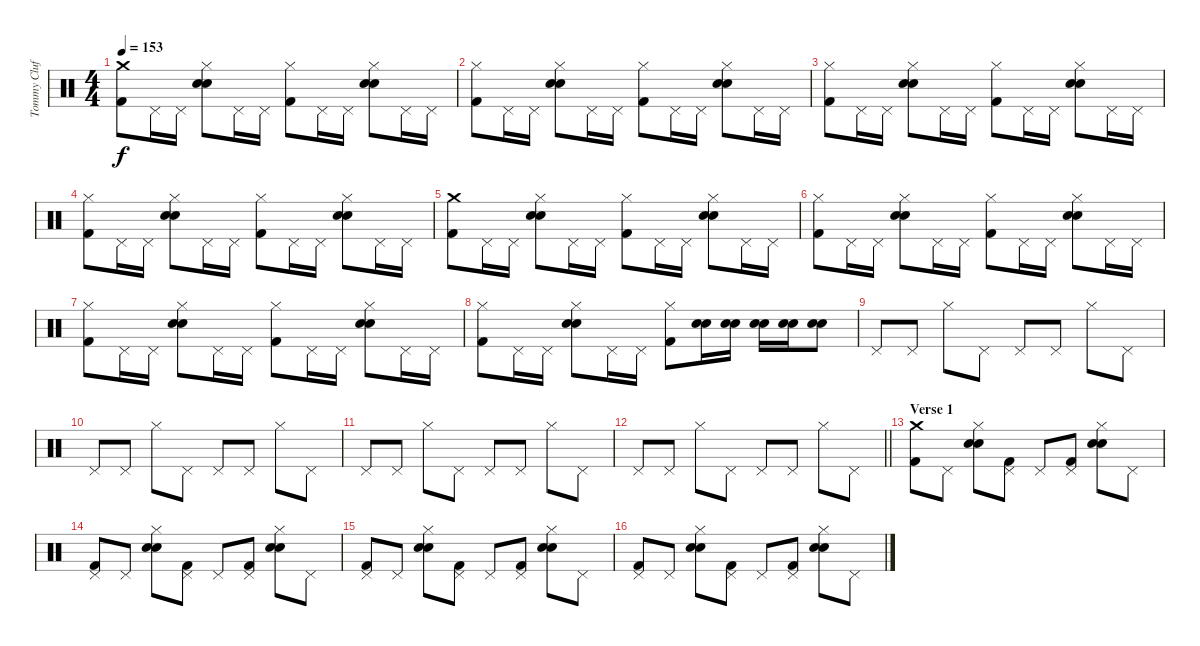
\track ("Tommy Clufetos" "Tommy Cluf") {instrument percussion}
\staff {score}
\articulation defaults
\ts (4 4)
\tempo 153
\clef neutral
\ks c
("Crash medium (hit)" "Kick (hit) 2").8{dy f} "Pedal Hi-Hat (hit)".16 "Pedal Hi-Hat (hit)".16 ("Hi-Hat (closed)" "Electric Snare (hit)" "Snare (hit) 2").8 "Pedal Hi-Hat (hit)".16 "Pedal Hi-Hat (hit)".16 ("Hi-Hat (closed)" "Kick (hit) 2").8 "Pedal Hi-Hat (hit)".16 "Pedal Hi-Hat (hit)".16 ("Hi-Hat (closed)" "Electric Snare (hit)" "Snare (hit) 2").8 "Pedal Hi-Hat (hit)".16 "Pedal Hi-Hat (hit)".16 |
("Hi-Hat (closed)" "Kick (hit) 2").8 "Pedal Hi-Hat (hit)".16 "Pedal Hi-Hat (hit)".16 ("Hi-Hat (closed)" "Electric Snare (hit)" "Snare (hit) 2").8 "Pedal Hi-Hat (hit)".16 "Pedal Hi-Hat (hit)".16 ("Hi-Hat (closed)" "Kick (hit) 2").8 "Pedal Hi-Hat (hit)".16 "Pedal Hi-Hat (hit)".16 ("Hi-Hat (closed)" "Electric Snare (hit)" "Snare (hit) 2").8 "Pedal Hi-Hat (hit)".16 "Pedal Hi-Hat (hit)".16 |
("Hi-Hat (closed)" "Kick (hit) 2").8 "Pedal Hi-Hat (hit)".16 "Pedal Hi-Hat (hit)".16 ("Hi-Hat (closed)" "Electric Snare (hit)" "Snare (hit) 2").8 "Pedal Hi-Hat (hit)".16 "Pedal Hi-Hat (hit)".16 ("Hi-Hat (closed)" "Kick (hit) 2").8 "Pedal Hi-Hat (hit)".16 "Pedal Hi-Hat (hit)".16 ("Hi-Hat (closed)" "Electric Snare (hit)" "Snare (hit) 2").8 "Pedal Hi-Hat (hit)".16 "Pedal Hi-Hat (hit)".16 |
("Hi-Hat (closed)" "Kick (hit) 2").8 "Pedal Hi-Hat (hit)".16 "Pedal Hi-Hat (hit)".16 ("Hi-Hat (closed)" "Electric Snare (hit)" "Snare (hit) 2").8 "Pedal Hi-Hat (hit)".16 "Pedal Hi-Hat (hit)".16 ("Hi-Hat (closed)" "Kick (hit) 2").8 "Pedal Hi-Hat (hit)".16 "Pedal Hi-Hat (hit)".16 ("Hi-Hat (closed)" "Electric Snare (hit)" "Snare (hit) 2").8 "Pedal Hi-Hat (hit)".16 "Pedal Hi-Hat (hit)".16 |
("Crash medium (hit)" "Kick (hit) 2").8 "Pedal Hi-Hat (hit)".16 "Pedal Hi-Hat (hit)".16 ("Hi-Hat (closed)" "Electric Snare (hit)" "Snare (hit) 2").8 "Pedal Hi-Hat (hit)".16 "Pedal Hi-Hat (hit)".16 ("Hi-Hat (closed)" "Kick (hit) 2").8 "Pedal Hi-Hat (hit)".16 "Pedal Hi-Hat (hit)".16 ("Hi-Hat (closed)" "Electric Snare (hit)" "Snare (hit) 2").8 "Pedal Hi-Hat (hit)".16 "Pedal Hi-Hat (hit)".16 |
("Hi-Hat (closed)" "Kick (hit) 2").8 "Pedal Hi-Hat (hit)".16 "Pedal Hi-Hat (hit)".16 ("Hi-Hat (closed)" "Electric Snare (hit)" "Snare (hit) 2").8 "Pedal Hi-Hat (hit)".16 "Pedal Hi-Hat (hit)".16 ("Hi-Hat (closed)" "Kick (hit) 2").8 "Pedal Hi-Hat (hit)".16 "Pedal Hi-Hat (hit)".16 ("Hi-Hat (closed)" "Electric Snare (hit)" "Snare (hit) 2").8 "Pedal Hi-Hat (hit)".16 "Pedal Hi-Hat (hit)".16 |
("Hi-Hat (closed)" "Kick (hit) 2").8 "Pedal Hi-Hat (hit)".16 "Pedal Hi-Hat (hit)".16 ("Hi-Hat (closed)" "Electric Snare (hit)" "Snare (hit) 2").8 "Pedal Hi-Hat (hit)".16 "Pedal Hi-Hat (hit)".16 ("Hi-Hat (closed)" "Kick (hit) 2").8 "Pedal Hi-Hat (hit)".16 "Pedal Hi-Hat (hit)".16 ("Hi-Hat (closed)" "Electric Snare (hit)" "Snare (hit) 2").8 "Pedal Hi-Hat (hit)".16 "Pedal Hi-Hat (hit)".16 |
("Hi-Hat (closed)" "Kick (hit) 2").8 "Pedal Hi-Hat (hit)".16 "Pedal Hi-Hat (hit)".16 ("Hi-Hat (closed)" "Electric Snare (hit)" "Snare (hit) 2").8 "Pedal Hi-Hat (hit)".16 "Pedal Hi-Hat (hit)".16 ("Hi-Hat (closed)" "Kick (hit) 2").8 ("Electric Snare (hit)" "Snare (hit) 2").16 ("Electric Snare (hit)" "Snare (hit) 2").16 ("Electric Snare (hit)" "Snare (hit) 2").16 ("Electric Snare (hit)" "Snare (hit) 2").16 ("Electric Snare (hit)" "Snare (hit) 2").8 |
"Pedal Hi-Hat (hit)".8 "Pedal Hi-Hat (hit)".8 "Hi-Hat (closed)".8 "Pedal Hi-Hat (hit)".8 "Pedal Hi-Hat (hit)".8 "Pedal Hi-Hat (hit)".8 "Hi-Hat (closed)".8 "Pedal Hi-Hat (hit)".8 |
"Pedal Hi-Hat (hit)".8 "Pedal Hi-Hat (hit)".8 "Hi-Hat (closed)".8 "Pedal Hi-Hat (hit)".8 "Pedal Hi-Hat (hit)".8 "Pedal Hi-Hat (hit)".8 "Hi-Hat (closed)".8 "Pedal Hi-Hat (hit)".8 |
"Pedal Hi-Hat (hit)".8 "Pedal Hi-Hat (hit)".8 "Hi-Hat (closed)".8 "Pedal Hi-Hat (hit)".8 "Pedal Hi-Hat (hit)".8 "Pedal Hi-Hat (hit)".8 "Hi-Hat (closed)".8 "Pedal Hi-Hat (hit)".8 |
\barLineRight lightlight "Pedal Hi-Hat (hit)".8 "Pedal Hi-Hat (hit)".8 "Hi-Hat (closed)".8 "Pedal Hi-Hat (hit)".8 "Pedal Hi-Hat (hit)".8 "Pedal Hi-Hat (hit)".8 "Hi-Hat (closed)".8 "Pedal Hi-Hat (hit)".8
|
\section ("" "Verse 1")
("Crash medium (hit)" "Kick (hit) 2").8 "Pedal Hi-Hat (hit)".8 ("Hi-Hat (closed)" "Electric Snare (hit)" "Snare (hit) 2").8 ("Pedal Hi-Hat (hit)" "Kick (hit) 2").8 "Pedal Hi-Hat (hit)".8 ("Pedal Hi-Hat (hit)" "Kick (hit) 2").8 ("Hi-Hat (closed)" "Electric Snare (hit)" "Snare (hit) 2").8 "Pedal Hi-Hat (hit)".8 |
("Pedal Hi-Hat (hit)" "Kick (hit) 2").8 "Pedal Hi-Hat (hit)".8 ("Hi-Hat (closed)" "Electric Snare (hit)" "Snare (hit) 2").8 ("Pedal Hi-Hat (hit)" "Kick (hit) 2").8 "Pedal Hi-Hat (hit)".8 ("Pedal Hi-Hat (hit)" "Kick (hit) 2").8 ("Hi-Hat (closed)" "Electric Snare (hit)" "Snare (hit) 2").8 "Pedal Hi-Hat (hit)".8 |
("Pedal Hi-Hat (hit)" "Kick (hit) 2").8 "Pedal Hi-Hat (hit)".8 ("Hi-Hat (closed)" "Electric Snare (hit)" "Snare (hit) 2").8 ("Pedal Hi-Hat (hit)" "Kick (hit) 2").8 "Pedal Hi-Hat (hit)".8 ("Pedal Hi-Hat (hit)" "Kick (hit) 2").8 ("Hi-Hat (closed)" "Electric Snare (hit)" "Snare (hit) 2").8 "Pedal Hi-Hat (hit)".8 |
("Pedal Hi-Hat (hit)" "Kick (hit) 2").8 "Pedal Hi-Hat (hit)".8 ("Hi-Hat (closed)" "Electric Snare (hit)" "Snare (hit) 2").8 ("Pedal Hi-Hat (hit)" "Kick (hit) 2").8 "Pedal Hi-Hat (hit)".8 ("Pedal Hi-Hat (hit)" "Kick (hit) 2").8 ("Hi-Hat (closed)" "Electric Snare (hit)" "Snare (hit) 2").8 "Pedal Hi-Hat (hit)".8
